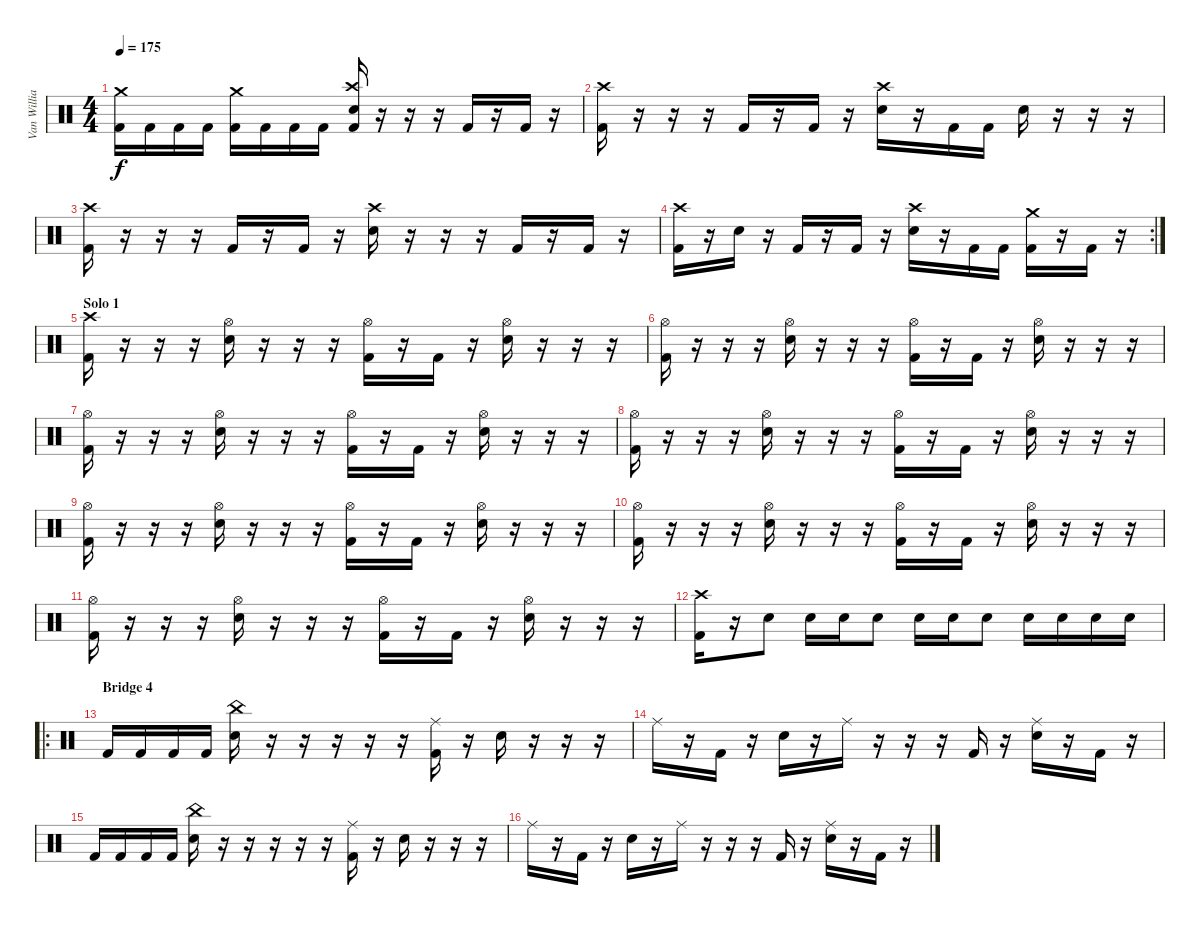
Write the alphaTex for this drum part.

\track ("Van Williams" "Van Willia") {instrument percussion}
\staff {score}
\articulation defaults
\ts (4 4)
\tempo 175
\clef neutral
\ks c
("Crash medium (hit)" "Kick (hit) 2").16{dy f} "Kick (hit) 2".16 "Kick (hit) 2".16 "Kick (hit) 2".16 ("Crash medium (hit)" "Kick (hit) 2").16 "Kick (hit) 2".16 "Kick (hit) 2".16 "Kick (hit) 2".16 ("Crash high (hit)" "Kick (hit) 2" "Electric Snare (hit)").16 r.16 r.16 r.16 "Kick (hit) 2".16 r.16 "Kick (hit) 2".16 r.16 |
("Crash high (hit)" "Kick (hit) 2").16 r.16 r.16 r.16 "Kick (hit) 2".16 r.16 "Kick (hit) 2".16 r.16 ("Crash high (hit)" "Electric Snare (hit)").16 r.16 "Kick (hit) 2".16 "Kick (hit) 2".16 "Electric Snare (hit)".16 r.16 r.16 r.16 |
("Crash high (hit)" "Kick (hit) 2").16 r.16 r.16 r.16 "Kick (hit) 2".16 r.16 "Kick (hit) 2".16 r.16 ("Crash high (hit)" "Electric Snare (hit)").16 r.16 r.16 r.16 "Kick (hit) 2".16 r.16 "Kick (hit) 2".16 r.16 |
\rc 2
("Crash high (hit)" "Kick (hit) 2").16 r.16 "Electric Snare (hit)".16 r.16 "Kick (hit) 2".16 r.16 "Kick (hit) 2".16 r.16 ("Crash high (hit)" "Electric Snare (hit)").16 r.16 "Kick (hit) 2".16 "Kick (hit) 2".16 ("Crash medium (hit)" "Kick (hit) 2").16 r.16 "Kick (hit) 2".16 r.16 |
\section ("" "Solo 1")
("Crash high (hit)" "Kick (hit) 2").16 r.16 r.16 r.16 ("Hi-Hat (open)" "Electric Snare (hit)").16 r.16 r.16 r.16 ("Hi-Hat (open)" "Kick (hit) 2").16 r.16 "Kick (hit) 2".16 r.16 ("Hi-Hat (open)" "Electric Snare (hit)").16 r.16 r.16 r.16 |
("Hi-Hat (open)" "Kick (hit) 2").16 r.16 r.16 r.16 ("Hi-Hat (open)" "Electric Snare (hit)").16 r.16 r.16 r.16 ("Hi-Hat (open)" "Kick (hit) 2").16 r.16 "Kick (hit) 2".16 r.16 ("Hi-Hat (open)" "Electric Snare (hit)").16 r.16 r.16 r.16 |
("Hi-Hat (open)" "Kick (hit) 2").16 r.16 r.16 r.16 ("Hi-Hat (open)" "Electric Snare (hit)").16 r.16 r.16 r.16 ("Hi-Hat (open)" "Kick (hit) 2").16 r.16 "Kick (hit) 2".16 r.16 ("Hi-Hat (open)" "Electric Snare (hit)").16 r.16 r.16 r.16 |
("Hi-Hat (open)" "Kick (hit) 2").16 r.16 r.16 r.16 ("Hi-Hat (open)" "Electric Snare (hit)").16 r.16 r.16 r.16 ("Hi-Hat (open)" "Kick (hit) 2").16 r.16 "Kick (hit) 2".16 r.16 ("Hi-Hat (open)" "Electric Snare (hit)").16 r.16 r.16 r.16 |
("Hi-Hat (open)" "Kick (hit) 2").16 r.16 r.16 r.16 ("Hi-Hat (open)" "Electric Snare (hit)").16 r.16 r.16 r.16 ("Hi-Hat (open)" "Kick (hit) 2").16 r.16 "Kick (hit) 2".16 r.16 ("Hi-Hat (open)" "Electric Snare (hit)").16 r.16 r.16 r.16 |
("Hi-Hat (open)" "Kick (hit) 2").16 r.16 r.16 r.16 ("Hi-Hat (open)" "Electric Snare (hit)").16 r.16 r.16 r.16 ("Hi-Hat (open)" "Kick (hit) 2").16 r.16 "Kick (hit) 2".16 r.16 ("Hi-Hat (open)" "Electric Snare (hit)").16 r.16 r.16 r.16 |
("Hi-Hat (open)" "Kick (hit) 2").16 r.16 r.16 r.16 ("Hi-Hat (open)" "Electric Snare (hit)").16 r.16 r.16 r.16 ("Hi-Hat (open)" "Kick (hit) 2").16 r.16 "Kick (hit) 2".16 r.16 ("Hi-Hat (open)" "Electric Snare (hit)").16 r.16 r.16 r.16 |
("Crash high (hit)" "Kick (hit) 2").16 r.16 "Electric Snare (hit)".8 "Electric Snare (hit)".16 "Electric Snare (hit)".16 "Electric Snare (hit)".8 "Electric Snare (hit)".16 "Electric Snare (hit)".16 "Electric Snare (hit)".8 "Electric Snare (hit)".16 "Electric Snare (hit)".16 "Electric Snare (hit)".16 "Electric Snare (hit)".16 |
\ro
\section ("" "Bridge 4")
"Kick (hit) 2".16 "Kick (hit) 2".16 "Kick (hit) 2".16 "Kick (hit) 2".16 ("China (hit)" "Electric Snare (hit)").16 r.16 r.16 r.16 r.16 r.16 ("Ride (middle)" "Kick (hit) 2").16 r.16 "Electric Snare (hit)".16 r.16 r.16 r.16 |
"Ride (middle)".16 r.16 "Kick (hit) 2".16 r.16 "Electric Snare (hit)".16 r.16 "Ride (middle)".16 r.16 r.16 r.16 "Kick (hit) 2".16 r.16 ("Ride (middle)" "Electric Snare (hit)").16 r.16 "Kick (hit) 2".16 r.16 |
"Kick (hit) 2".16 "Kick (hit) 2".16 "Kick (hit) 2".16 "Kick (hit) 2".16 ("China (hit)" "Electric Snare (hit)").16 r.16 r.16 r.16 r.16 r.16 ("Ride (middle)" "Kick (hit) 2").16 r.16 "Electric Snare (hit)".16 r.16 r.16 r.16 |
"Ride (middle)".16 r.16 "Kick (hit) 2".16 r.16 "Electric Snare (hit)".16 r.16 "Ride (middle)".16 r.16 r.16 r.16 "Kick (hit) 2".16 r.16 ("Ride (middle)" "Electric Snare (hit)").16 r.16 "Kick (hit) 2".16 r.16
